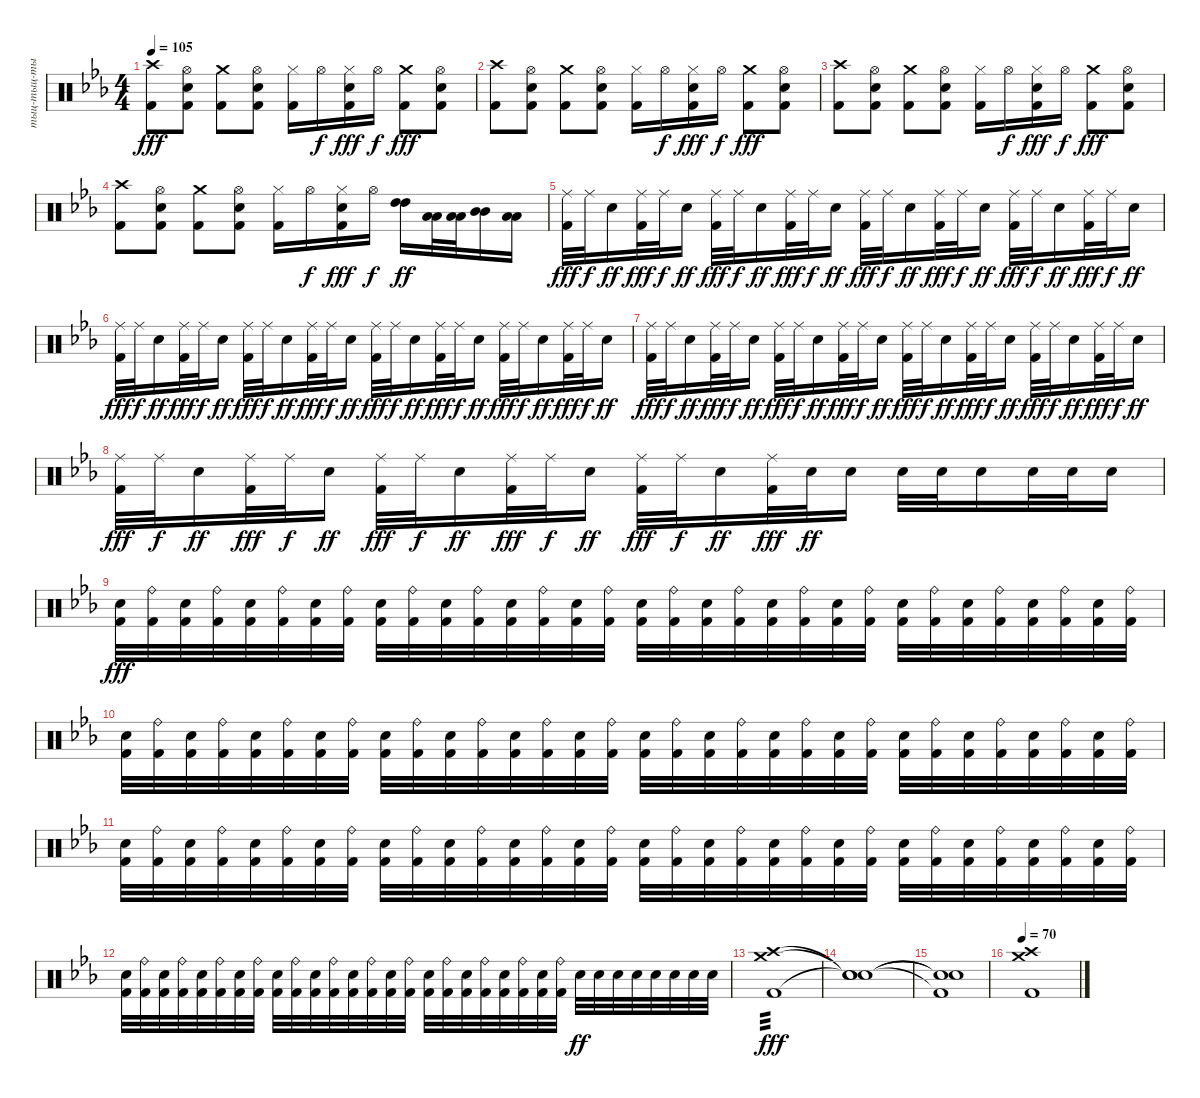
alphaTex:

\track ("тыц-тыц-тыц..." "тыц-тыц-ты") {instrument percussion}
\staff
\articulation defaults
\ts (4 4)
\tempo 105
\clef neutral
\ks cminor
("Crash high (hit)" "Kick (hit) 2").8{dy fff} ("Hi-Hat (open)" "Electric Snare (hit)" "Kick (hit) 2").8 ("Crash medium (hit)" "Kick (hit) 2").8 ("Hi-Hat (open)" "Electric Snare (hit)" "Kick (hit) 2").8 ("Hi-Hat (closed)" "Kick (hit) 2").16 "Hi-Hat (open)".16{dy f} ("Hi-Hat (closed)" "Electric Snare (hit)" "Kick (hit) 2").16{dy fff} "Hi-Hat (open)".16{dy f} ("Crash medium (hit)" "Kick (hit) 2").8{dy fff} ("Hi-Hat (open)" "Electric Snare (hit)" "Kick (hit) 2").8 |
("Crash high (hit)" "Kick (hit) 2").8 ("Hi-Hat (open)" "Electric Snare (hit)" "Kick (hit) 2").8 ("Crash medium (hit)" "Kick (hit) 2").8 ("Hi-Hat (open)" "Electric Snare (hit)" "Kick (hit) 2").8 ("Hi-Hat (closed)" "Kick (hit) 2").16 "Hi-Hat (open)".16{dy f} ("Hi-Hat (closed)" "Electric Snare (hit)" "Kick (hit) 2").16{dy fff} "Hi-Hat (open)".16{dy f} ("Crash medium (hit)" "Kick (hit) 2").8{dy fff} ("Hi-Hat (open)" "Electric Snare (hit)" "Kick (hit) 2").8 |
("Crash high (hit)" "Kick (hit) 2").8 ("Hi-Hat (open)" "Electric Snare (hit)" "Kick (hit) 2").8 ("Crash medium (hit)" "Kick (hit) 2").8 ("Hi-Hat (open)" "Electric Snare (hit)" "Kick (hit) 2").8 ("Hi-Hat (closed)" "Kick (hit) 2").16 "Hi-Hat (open)".16{dy f} ("Hi-Hat (closed)" "Electric Snare (hit)" "Kick (hit) 2").16{dy fff} "Hi-Hat (open)".16{dy f} ("Crash medium (hit)" "Kick (hit) 2").8{dy fff} ("Hi-Hat (open)" "Electric Snare (hit)" "Kick (hit) 2").8 |
("Crash high (hit)" "Kick (hit) 2").8 ("Hi-Hat (open)" "Electric Snare (hit)" "Kick (hit) 2").8 ("Crash medium (hit)" "Kick (hit) 2").8 ("Hi-Hat (open)" "Electric Snare (hit)" "Kick (hit) 2").8 ("Hi-Hat (closed)" "Kick (hit) 2").16 "Hi-Hat (open)".16{dy f} ("Hi-Hat (closed)" "Electric Snare (hit)" "Kick (hit) 2").16{dy fff} "Hi-Hat (open)".16{dy f} ("High Tom (hit)" "High Tom (hit)").16{dy ff} ("Low Tom (hit)" "Low Tom (hit)").32 ("Low Tom (hit)" "Low Tom (hit)").32 ("Mid Tom (hit)" "Mid Tom (hit)").16 ("Low Tom (hit)" "Low Tom (hit)").16 |
("Ride (middle)" "Kick (hit) 2").32{dy fff} "Ride (middle)".32{dy f} "Electric Snare (hit)".16{dy ff} ("Ride (middle)" "Kick (hit) 2").32{dy fff} "Ride (middle)".32{dy f} "Electric Snare (hit)".16{dy ff} ("Ride (middle)" "Kick (hit) 2").32{dy fff} "Ride (middle)".32{dy f} "Electric Snare (hit)".16{dy ff} ("Ride (middle)" "Kick (hit) 2").32{dy fff} "Ride (middle)".32{dy f} "Electric Snare (hit)".16{dy ff} ("Ride (middle)" "Kick (hit) 2").32{dy fff} "Ride (middle)".32{dy f} "Electric Snare (hit)".16{dy ff} ("Ride (middle)" "Kick (hit) 2").32{dy fff} "Ride (middle)".32{dy f} "Electric Snare (hit)".16{dy ff} ("Ride (middle)" "Kick (hit) 2").32{dy fff} "Ride (middle)".32{dy f} "Electric Snare (hit)".16{dy ff} ("Ride (middle)" "Kick (hit) 2").32{dy fff} "Ride (middle)".32{dy f} "Electric Snare (hit)".16{dy ff} |
("Ride (middle)" "Kick (hit) 2").32{dy fff} "Ride (middle)".32{dy f} "Electric Snare (hit)".16{dy ff} ("Ride (middle)" "Kick (hit) 2").32{dy fff} "Ride (middle)".32{dy f} "Electric Snare (hit)".16{dy ff} ("Ride (middle)" "Kick (hit) 2").32{dy fff} "Ride (middle)".32{dy f} "Electric Snare (hit)".16{dy ff} ("Ride (middle)" "Kick (hit) 2").32{dy fff} "Ride (middle)".32{dy f} "Electric Snare (hit)".16{dy ff} ("Ride (middle)" "Kick (hit) 2").32{dy fff} "Ride (middle)".32{dy f} "Electric Snare (hit)".16{dy ff} ("Ride (middle)" "Kick (hit) 2").32{dy fff} "Ride (middle)".32{dy f} "Electric Snare (hit)".16{dy ff} ("Ride (middle)" "Kick (hit) 2").32{dy fff} "Ride (middle)".32{dy f} "Electric Snare (hit)".16{dy ff} ("Ride (middle)" "Kick (hit) 2").32{dy fff} "Ride (middle)".32{dy f} "Electric Snare (hit)".16{dy ff} |
("Ride (middle)" "Kick (hit) 2").32{dy fff} "Ride (middle)".32{dy f} "Electric Snare (hit)".16{dy ff} ("Ride (middle)" "Kick (hit) 2").32{dy fff} "Ride (middle)".32{dy f} "Electric Snare (hit)".16{dy ff} ("Ride (middle)" "Kick (hit) 2").32{dy fff} "Ride (middle)".32{dy f} "Electric Snare (hit)".16{dy ff} ("Ride (middle)" "Kick (hit) 2").32{dy fff} "Ride (middle)".32{dy f} "Electric Snare (hit)".16{dy ff} ("Ride (middle)" "Kick (hit) 2").32{dy fff} "Ride (middle)".32{dy f} "Electric Snare (hit)".16{dy ff} ("Ride (middle)" "Kick (hit) 2").32{dy fff} "Ride (middle)".32{dy f} "Electric Snare (hit)".16{dy ff} ("Ride (middle)" "Kick (hit) 2").32{dy fff} "Ride (middle)".32{dy f} "Electric Snare (hit)".16{dy ff} ("Ride (middle)" "Kick (hit) 2").32{dy fff} "Ride (middle)".32{dy f} "Electric Snare (hit)".16{dy ff} |
("Ride (middle)" "Kick (hit) 2").32{dy fff} "Ride (middle)".32{dy f} "Electric Snare (hit)".16{dy ff} ("Ride (middle)" "Kick (hit) 2").32{dy fff} "Ride (middle)".32{dy f} "Electric Snare (hit)".16{dy ff} ("Ride (middle)" "Kick (hit) 2").32{dy fff} "Ride (middle)".32{dy f} "Electric Snare (hit)".16{dy ff} ("Ride (middle)" "Kick (hit) 2").32{dy fff} "Ride (middle)".32{dy f} "Electric Snare (hit)".16{dy ff} ("Ride (middle)" "Kick (hit) 2").32{dy fff} "Ride (middle)".32{dy f} "Electric Snare (hit)".16{dy ff} ("Ride (middle)" "Kick (hit) 2").32{dy fff} "Electric Snare (hit)".32{dy ff} "Electric Snare (hit)".16 "Electric Snare (hit)".32 "Electric Snare (hit)".32 "Electric Snare (hit)".16 "Electric Snare (hit)".32 "Electric Snare (hit)".32 "Electric Snare (hit)".16 |
("Electric Snare (hit)" "Kick (hit) 2").32{dy fff} ("Ride (bell)" "Kick (hit) 2").32 ("Electric Snare (hit)" "Kick (hit) 2").32 ("Ride (bell)" "Kick (hit) 2").32 ("Electric Snare (hit)" "Kick (hit) 2").32 ("Ride (bell)" "Kick (hit) 2").32 ("Electric Snare (hit)" "Kick (hit) 2").32 ("Ride (bell)" "Kick (hit) 2").32 ("Electric Snare (hit)" "Kick (hit) 2").32 ("Ride (bell)" "Kick (hit) 2").32 ("Electric Snare (hit)" "Kick (hit) 2").32 ("Ride (bell)" "Kick (hit) 2").32 ("Electric Snare (hit)" "Kick (hit) 2").32 ("Ride (bell)" "Kick (hit) 2").32 ("Electric Snare (hit)" "Kick (hit) 2").32 ("Ride (bell)" "Kick (hit) 2").32 ("Electric Snare (hit)" "Kick (hit) 2").32 ("Ride (bell)" "Kick (hit) 2").32 ("Electric Snare (hit)" "Kick (hit) 2").32 ("Ride (bell)" "Kick (hit) 2").32 ("Electric Snare (hit)" "Kick (hit) 2").32 ("Ride (bell)" "Kick (hit) 2").32 ("Electric Snare (hit)" "Kick (hit) 2").32 ("Ride (bell)" "Kick (hit) 2").32 ("Electric Snare (hit)" "Kick (hit) 2").32 ("Ride (bell)" "Kick (hit) 2").32 ("Electric Snare (hit)" "Kick (hit) 2").32 ("Ride (bell)" "Kick (hit) 2").32 ("Electric Snare (hit)" "Kick (hit) 2").32 ("Ride (bell)" "Kick (hit) 2").32 ("Electric Snare (hit)" "Kick (hit) 2").32 ("Ride (bell)" "Kick (hit) 2").32 |
("Electric Snare (hit)" "Kick (hit) 2").32 ("Ride (bell)" "Kick (hit) 2").32 ("Electric Snare (hit)" "Kick (hit) 2").32 ("Ride (bell)" "Kick (hit) 2").32 ("Electric Snare (hit)" "Kick (hit) 2").32 ("Ride (bell)" "Kick (hit) 2").32 ("Electric Snare (hit)" "Kick (hit) 2").32 ("Ride (bell)" "Kick (hit) 2").32 ("Electric Snare (hit)" "Kick (hit) 2").32 ("Ride (bell)" "Kick (hit) 2").32 ("Electric Snare (hit)" "Kick (hit) 2").32 ("Ride (bell)" "Kick (hit) 2").32 ("Electric Snare (hit)" "Kick (hit) 2").32 ("Ride (bell)" "Kick (hit) 2").32 ("Electric Snare (hit)" "Kick (hit) 2").32 ("Ride (bell)" "Kick (hit) 2").32 ("Electric Snare (hit)" "Kick (hit) 2").32 ("Ride (bell)" "Kick (hit) 2").32 ("Electric Snare (hit)" "Kick (hit) 2").32 ("Ride (bell)" "Kick (hit) 2").32 ("Electric Snare (hit)" "Kick (hit) 2").32 ("Ride (bell)" "Kick (hit) 2").32 ("Electric Snare (hit)" "Kick (hit) 2").32 ("Ride (bell)" "Kick (hit) 2").32 ("Electric Snare (hit)" "Kick (hit) 2").32 ("Ride (bell)" "Kick (hit) 2").32 ("Electric Snare (hit)" "Kick (hit) 2").32 ("Ride (bell)" "Kick (hit) 2").32 ("Electric Snare (hit)" "Kick (hit) 2").32 ("Ride (bell)" "Kick (hit) 2").32 ("Electric Snare (hit)" "Kick (hit) 2").32 ("Ride (bell)" "Kick (hit) 2").32 |
("Electric Snare (hit)" "Kick (hit) 2").32 ("Ride (bell)" "Kick (hit) 2").32 ("Electric Snare (hit)" "Kick (hit) 2").32 ("Ride (bell)" "Kick (hit) 2").32 ("Electric Snare (hit)" "Kick (hit) 2").32 ("Ride (bell)" "Kick (hit) 2").32 ("Electric Snare (hit)" "Kick (hit) 2").32 ("Ride (bell)" "Kick (hit) 2").32 ("Electric Snare (hit)" "Kick (hit) 2").32 ("Ride (bell)" "Kick (hit) 2").32 ("Electric Snare (hit)" "Kick (hit) 2").32 ("Ride (bell)" "Kick (hit) 2").32 ("Electric Snare (hit)" "Kick (hit) 2").32 ("Ride (bell)" "Kick (hit) 2").32 ("Electric Snare (hit)" "Kick (hit) 2").32 ("Ride (bell)" "Kick (hit) 2").32 ("Electric Snare (hit)" "Kick (hit) 2").32 ("Ride (bell)" "Kick (hit) 2").32 ("Electric Snare (hit)" "Kick (hit) 2").32 ("Ride (bell)" "Kick (hit) 2").32 ("Electric Snare (hit)" "Kick (hit) 2").32 ("Ride (bell)" "Kick (hit) 2").32 ("Electric Snare (hit)" "Kick (hit) 2").32 ("Ride (bell)" "Kick (hit) 2").32 ("Electric Snare (hit)" "Kick (hit) 2").32 ("Ride (bell)" "Kick (hit) 2").32 ("Electric Snare (hit)" "Kick (hit) 2").32 ("Ride (bell)" "Kick (hit) 2").32 ("Electric Snare (hit)" "Kick (hit) 2").32 ("Ride (bell)" "Kick (hit) 2").32 ("Electric Snare (hit)" "Kick (hit) 2").32 ("Ride (bell)" "Kick (hit) 2").32 |
("Electric Snare (hit)" "Kick (hit) 2").32 ("Ride (bell)" "Kick (hit) 2").32 ("Electric Snare (hit)" "Kick (hit) 2").32 ("Ride (bell)" "Kick (hit) 2").32 ("Electric Snare (hit)" "Kick (hit) 2").32 ("Ride (bell)" "Kick (hit) 2").32 ("Electric Snare (hit)" "Kick (hit) 2").32 ("Ride (bell)" "Kick (hit) 2").32 ("Electric Snare (hit)" "Kick (hit) 2").32 ("Ride (bell)" "Kick (hit) 2").32 ("Electric Snare (hit)" "Kick (hit) 2").32 ("Ride (bell)" "Kick (hit) 2").32 ("Electric Snare (hit)" "Kick (hit) 2").32 ("Ride (bell)" "Kick (hit) 2").32 ("Electric Snare (hit)" "Kick (hit) 2").32 ("Ride (bell)" "Kick (hit) 2").32 ("Electric Snare (hit)" "Kick (hit) 2").32 ("Ride (bell)" "Kick (hit) 2").32 ("Electric Snare (hit)" "Kick (hit) 2").32 ("Ride (bell)" "Kick (hit) 2").32 ("Electric Snare (hit)" "Kick (hit) 2").32 ("Ride (bell)" "Kick (hit) 2").32 ("Electric Snare (hit)" "Kick (hit) 2").32 ("Ride (bell)" "Kick (hit) 2").32 "Electric Snare (hit)".32{dy ff} "Electric Snare (hit)".32 "Electric Snare (hit)".32 "Electric Snare (hit)".32 "Electric Snare (hit)".32 "Electric Snare (hit)".32 "Electric Snare (hit)".32 "Electric Snare (hit)".32 |
("Crash high (hit)" "Crash medium (hit)" "Kick (hit) 2").1{tp 3 dy fff} |
("Snare (hit)"{t} "Snare (hit)"{t} "Snare (hit)"{t}).1 |
("Snare (hit)"{t} "Snare (hit)"{t} "Kick (hit) 2"{t}).1 |
\tempo 70
("Crash high (hit)" "Crash medium (hit)" "Kick (hit) 2").1{volume 0}
